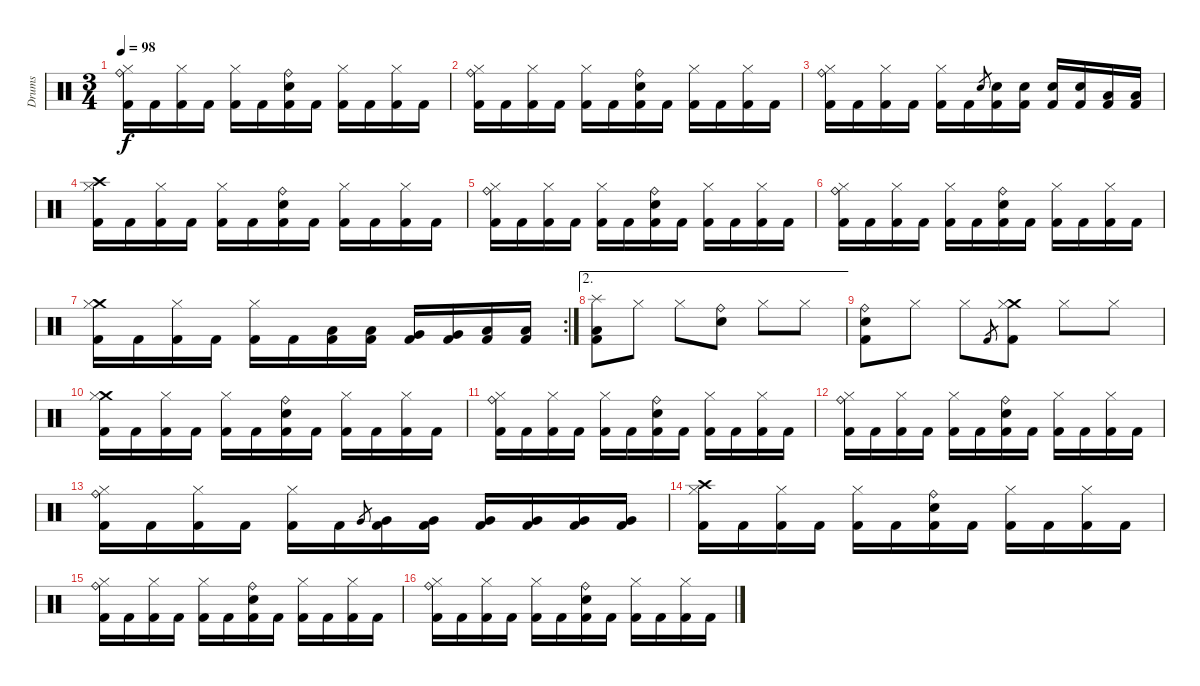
\track ("Drums" "Drums") {instrument percussion}
\staff {score}
\articulation defaults
\ts (3 4)
\tempo 98
\clef neutral
\ks c
("Ride (bell)" "Hi-Hat (closed)" "Kick (hit) 2").16{dy f} "Kick (hit) 2".16 ("Hi-Hat (closed)" "Kick (hit) 2").16 "Kick (hit) 2".16 ("Hi-Hat (closed)" "Kick (hit) 2").16 "Kick (hit) 2".16 ("Ride (bell)" "Electric Snare (hit)" "Kick (hit) 2").16 "Kick (hit) 2".16 ("Hi-Hat (closed)" "Kick (hit) 2").16 "Kick (hit) 2".16 ("Hi-Hat (closed)" "Kick (hit) 2").16 "Kick (hit) 2".16 |
("Ride (bell)" "Hi-Hat (closed)" "Kick (hit) 2").16 "Kick (hit) 2".16 ("Hi-Hat (closed)" "Kick (hit) 2").16 "Kick (hit) 2".16 ("Hi-Hat (closed)" "Kick (hit) 2").16 "Kick (hit) 2".16 ("Ride (bell)" "Electric Snare (hit)" "Kick (hit) 2").16 "Kick (hit) 2".16 ("Hi-Hat (closed)" "Kick (hit) 2").16 "Kick (hit) 2".16 ("Hi-Hat (closed)" "Kick (hit) 2").16 "Kick (hit) 2".16 |
("Ride (bell)" "Hi-Hat (closed)" "Kick (hit) 2").16 "Kick (hit) 2".16 ("Hi-Hat (closed)" "Kick (hit) 2").16 "Kick (hit) 2".16 ("Hi-Hat (closed)" "Kick (hit) 2").16 "Kick (hit) 2".16 "Electric Snare (hit)".8{gr} ("Electric Snare (hit)" "Kick (hit) 2").16 ("Electric Snare (hit)" "Kick (hit) 2").16 ("Electric Snare (hit)" "Kick (hit) 2").16 ("Electric Snare (hit)" "Kick (hit) 2").16 ("Low Floor Tom (hit)" "Kick (hit) 2").16 ("Low Floor Tom (hit)" "Kick (hit) 2").16 |
("Crash high (hit)" "Hi-Hat (closed)" "Kick (hit) 2").16 "Kick (hit) 2".16 ("Hi-Hat (closed)" "Kick (hit) 2").16 "Kick (hit) 2".16 ("Hi-Hat (closed)" "Kick (hit) 2").16 "Kick (hit) 2".16 ("Ride (bell)" "Electric Snare (hit)" "Kick (hit) 2").16 "Kick (hit) 2".16 ("Hi-Hat (closed)" "Kick (hit) 2").16 "Kick (hit) 2".16 ("Hi-Hat (closed)" "Kick (hit) 2").16 "Kick (hit) 2".16 |
("Ride (bell)" "Hi-Hat (closed)" "Kick (hit) 2").16 "Kick (hit) 2".16 ("Hi-Hat (closed)" "Kick (hit) 2").16 "Kick (hit) 2".16 ("Hi-Hat (closed)" "Kick (hit) 2").16 "Kick (hit) 2".16 ("Ride (bell)" "Electric Snare (hit)" "Kick (hit) 2").16 "Kick (hit) 2".16 ("Hi-Hat (closed)" "Kick (hit) 2").16 "Kick (hit) 2".16 ("Hi-Hat (closed)" "Kick (hit) 2").16 "Kick (hit) 2".16 |
("Ride (bell)" "Hi-Hat (closed)" "Kick (hit) 2").16 "Kick (hit) 2".16 ("Hi-Hat (closed)" "Kick (hit) 2").16 "Kick (hit) 2".16 ("Hi-Hat (closed)" "Kick (hit) 2").16 "Kick (hit) 2".16 ("Ride (bell)" "Electric Snare (hit)" "Kick (hit) 2").16 "Kick (hit) 2".16 ("Hi-Hat (closed)" "Kick (hit) 2").16 "Kick (hit) 2".16 ("Hi-Hat (closed)" "Kick (hit) 2").16 "Kick (hit) 2".16 |
\rc 2
("Crash medium (hit)" "Hi-Hat (closed)" "Kick (hit) 2").16 "Kick (hit) 2".16 ("Hi-Hat (closed)" "Kick (hit) 2").16 "Kick (hit) 2".16 ("Hi-Hat (closed)" "Kick (hit) 2").16 "Kick (hit) 2".16 ("Low Floor Tom (hit)" "Kick (hit) 2").16 ("Low Floor Tom (hit)" "Kick (hit) 2").16 ("Very Low Tom (hit)" "Kick (hit) 2").16 ("Very Low Tom (hit)" "Kick (hit) 2").16 ("Low Tom (hit)" "Kick (hit) 2").16 ("Low Tom (hit)" "Kick (hit) 2").16 |
\ae 2
("Splash (hit)" "Low Floor Tom (hit)" "Kick (hit) 2").8 "Hi-Hat (closed)".8 "Hi-Hat (closed)".8 ("Ride (bell)" "Electric Snare (hit)").8 "Hi-Hat (closed)".8 "Hi-Hat (closed)".8 |
("Ride (bell)" "Electric Snare (hit)" "Kick (hit) 2").8 "Hi-Hat (closed)".8 "Hi-Hat (closed)".8 "Kick (hit) 2".8{gr} ("Crash medium (hit)" "Hi-Hat (closed)" "Kick (hit) 2").8 "Hi-Hat (closed)".8 "Hi-Hat (closed)".8 |
("Crash medium (hit)" "Hi-Hat (closed)" "Kick (hit) 2").16 "Kick (hit) 2".16 ("Hi-Hat (closed)" "Kick (hit) 2").16 "Kick (hit) 2".16 ("Hi-Hat (closed)" "Kick (hit) 2").16 "Kick (hit) 2".16 ("Ride (bell)" "Electric Snare (hit)" "Kick (hit) 2").16 "Kick (hit) 2".16 ("Hi-Hat (closed)" "Kick (hit) 2").16 "Kick (hit) 2".16 ("Hi-Hat (closed)" "Kick (hit) 2").16 "Kick (hit) 2".16 |
("Ride (bell)" "Hi-Hat (closed)" "Kick (hit) 2").16 "Kick (hit) 2".16 ("Hi-Hat (closed)" "Kick (hit) 2").16 "Kick (hit) 2".16 ("Hi-Hat (closed)" "Kick (hit) 2").16 "Kick (hit) 2".16 ("Ride (bell)" "Electric Snare (hit)" "Kick (hit) 2").16 "Kick (hit) 2".16 ("Hi-Hat (closed)" "Kick (hit) 2").16 "Kick (hit) 2".16 ("Hi-Hat (closed)" "Kick (hit) 2").16 "Kick (hit) 2".16 |
("Ride (bell)" "Hi-Hat (closed)" "Kick (hit) 2").16 "Kick (hit) 2".16 ("Hi-Hat (closed)" "Kick (hit) 2").16 "Kick (hit) 2".16 ("Hi-Hat (closed)" "Kick (hit) 2").16 "Kick (hit) 2".16 ("Ride (bell)" "Electric Snare (hit)" "Kick (hit) 2").16 "Kick (hit) 2".16 ("Hi-Hat (closed)" "Kick (hit) 2").16 "Kick (hit) 2".16 ("Hi-Hat (closed)" "Kick (hit) 2").16 "Kick (hit) 2".16 |
("Ride (bell)" "Hi-Hat (closed)" "Kick (hit) 2").16 "Kick (hit) 2".16 ("Hi-Hat (closed)" "Kick (hit) 2").16 "Kick (hit) 2".16 ("Hi-Hat (closed)" "Kick (hit) 2").16 "Kick (hit) 2".16 "Very Low Tom (hit)".8{gr} ("Very Low Tom (hit)" "Kick (hit) 2").16 ("Very Low Tom (hit)" "Kick (hit) 2").16 ("Very Low Tom (hit)" "Kick (hit) 2").16 ("Very Low Tom (hit)" "Kick (hit) 2").16 ("Very Low Tom (hit)" "Kick (hit) 2").16 ("Very Low Tom (hit)" "Kick (hit) 2").16 |
("Crash high (hit)" "Hi-Hat (closed)" "Kick (hit) 2").16 "Kick (hit) 2".16 ("Hi-Hat (closed)" "Kick (hit) 2").16 "Kick (hit) 2".16 ("Hi-Hat (closed)" "Kick (hit) 2").16 "Kick (hit) 2".16 ("Ride (bell)" "Electric Snare (hit)" "Kick (hit) 2").16 "Kick (hit) 2".16 ("Hi-Hat (closed)" "Kick (hit) 2").16 "Kick (hit) 2".16 ("Hi-Hat (closed)" "Kick (hit) 2").16 "Kick (hit) 2".16 |
("Ride (bell)" "Hi-Hat (closed)" "Kick (hit) 2").16 "Kick (hit) 2".16 ("Hi-Hat (closed)" "Kick (hit) 2").16 "Kick (hit) 2".16 ("Hi-Hat (closed)" "Kick (hit) 2").16 "Kick (hit) 2".16 ("Ride (bell)" "Electric Snare (hit)" "Kick (hit) 2").16 "Kick (hit) 2".16 ("Hi-Hat (closed)" "Kick (hit) 2").16 "Kick (hit) 2".16 ("Hi-Hat (closed)" "Kick (hit) 2").16 "Kick (hit) 2".16 |
("Ride (bell)" "Hi-Hat (closed)" "Kick (hit) 2").16 "Kick (hit) 2".16 ("Hi-Hat (closed)" "Kick (hit) 2").16 "Kick (hit) 2".16 ("Hi-Hat (closed)" "Kick (hit) 2").16 "Kick (hit) 2".16 ("Ride (bell)" "Electric Snare (hit)" "Kick (hit) 2").16 "Kick (hit) 2".16 ("Hi-Hat (closed)" "Kick (hit) 2").16 "Kick (hit) 2".16 ("Hi-Hat (closed)" "Kick (hit) 2").16 "Kick (hit) 2".16
